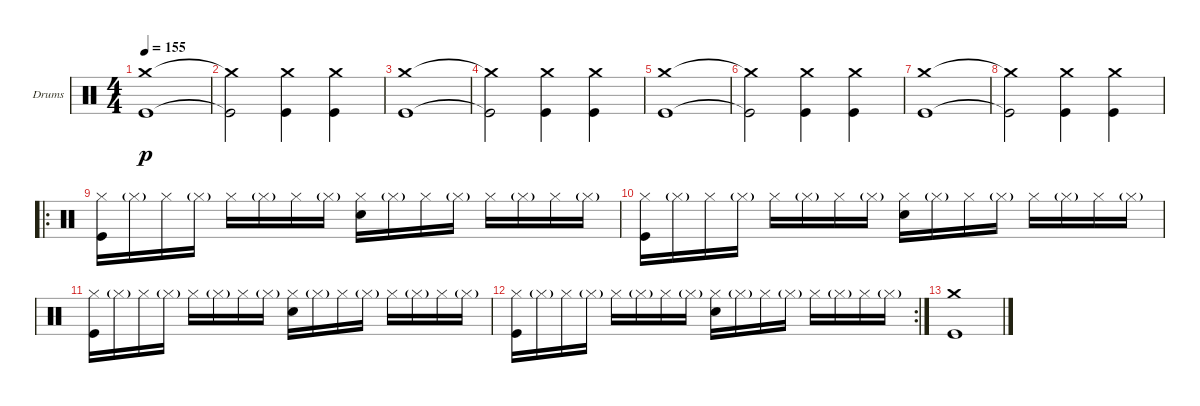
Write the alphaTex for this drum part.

\defaultSystemsLayout 4
\bracketExtendMode groupsimilarinstruments
\firstSystemTrackNameOrientation horizontal
\otherSystemsTrackNameOrientation horizontal
\track ("Drumkit" "Drums") {instrument percussion}
\staff {score}
\articulation defaults
\ts (4 4)
\tempo 155
\clef neutral
\scale
0.333333
\ks c
("Crash medium (hit)" "Kick (hit)").1{dy p} |
\scale
0.333333 ("Crash medium (hit)"{t} "Kick (hit)"{t}).2 ("Crash medium (hit)" "Kick (hit)").4 ("Crash medium (hit)" "Kick (hit)").4 |
\scale
0.333333 ("Crash medium (hit)" "Kick (hit)").1 |
\scale
0.333333 ("Crash medium (hit)"{t} "Kick (hit)"{t}).2 ("Crash medium (hit)" "Kick (hit)").4 ("Crash medium (hit)" "Kick (hit)").4 |
\scale
0.333333 ("Crash medium (hit)" "Kick (hit)").1 |
\scale
0.333333 ("Crash medium (hit)"{t} "Kick (hit)"{t}).2 ("Crash medium (hit)" "Kick (hit)").4 ("Crash medium (hit)" "Kick (hit)").4 |
\scale
0.333333 ("Crash medium (hit)" "Kick (hit)").1 |
\scale
0.333333 ("Crash medium (hit)"{t} "Kick (hit)"{t}).2 ("Crash medium (hit)" "Kick (hit)").4 ("Crash medium (hit)" "Kick (hit)").4 |
\ro
\scale
0.377778 ("Hi-Hat (closed)" "Kick (hit)").16 "Hi-Hat (closed)"{g}.16 "Hi-Hat (closed)".16 "Hi-Hat (closed)"{g}.16 "Hi-Hat (closed)".16 "Hi-Hat (closed)"{g}.16 "Hi-Hat (closed)".16 "Hi-Hat (closed)"{g}.16 ("Hi-Hat (closed)" "Snare (hit) 2").16 "Hi-Hat (closed)"{g}.16 "Hi-Hat (closed)".16 "Hi-Hat (closed)"{g}.16 "Hi-Hat (closed)".16 "Hi-Hat (closed)"{g}.16 "Hi-Hat (closed)".16 "Hi-Hat (closed)"{g}.16 |
\scale
0.311111 ("Hi-Hat (closed)" "Kick (hit)").16 "Hi-Hat (closed)"{g}.16 "Hi-Hat (closed)".16 "Hi-Hat (closed)"{g}.16 "Hi-Hat (closed)".16 "Hi-Hat (closed)"{g}.16 "Hi-Hat (closed)".16 "Hi-Hat (closed)"{g}.16 ("Hi-Hat (closed)" "Snare (hit) 2").16 "Hi-Hat (closed)"{g}.16 "Hi-Hat (closed)".16 "Hi-Hat (closed)"{g}.16 "Hi-Hat (closed)".16 "Hi-Hat (closed)"{g}.16 "Hi-Hat (closed)".16 "Hi-Hat (closed)"{g}.16 |
\scale
0.311111 ("Hi-Hat (closed)" "Kick (hit)").16 "Hi-Hat (closed)"{g}.16 "Hi-Hat (closed)".16 "Hi-Hat (closed)"{g}.16 "Hi-Hat (closed)".16 "Hi-Hat (closed)"{g}.16 "Hi-Hat (closed)".16 "Hi-Hat (closed)"{g}.16 ("Hi-Hat (closed)" "Snare (hit) 2").16 "Hi-Hat (closed)"{g}.16 "Hi-Hat (closed)".16 "Hi-Hat (closed)"{g}.16 "Hi-Hat (closed)".16 "Hi-Hat (closed)"{g}.16 "Hi-Hat (closed)".16 "Hi-Hat (closed)"{g}.16 |
\rc 2
\scale
0.356322 ("Hi-Hat (closed)" "Kick (hit)").16 "Hi-Hat (closed)"{g}.16 "Hi-Hat (closed)".16 "Hi-Hat (closed)"{g}.16 "Hi-Hat (closed)".16 "Hi-Hat (closed)"{g}.16 "Hi-Hat (closed)".16 "Hi-Hat (closed)"{g}.16 ("Hi-Hat (closed)" "Snare (hit) 2").16 "Hi-Hat (closed)"{g}.16 "Hi-Hat (closed)".16 "Hi-Hat (closed)"{g}.16 "Hi-Hat (closed)".16 "Hi-Hat (closed)"{g}.16 "Hi-Hat (closed)".16 "Hi-Hat (closed)"{g}.16 |
\scale
0.321839 ("Crash medium (hit)" "Kick (hit)").1 |
\scale
0.321839 |
\scale
0.333333 |
\scale
0.333333
